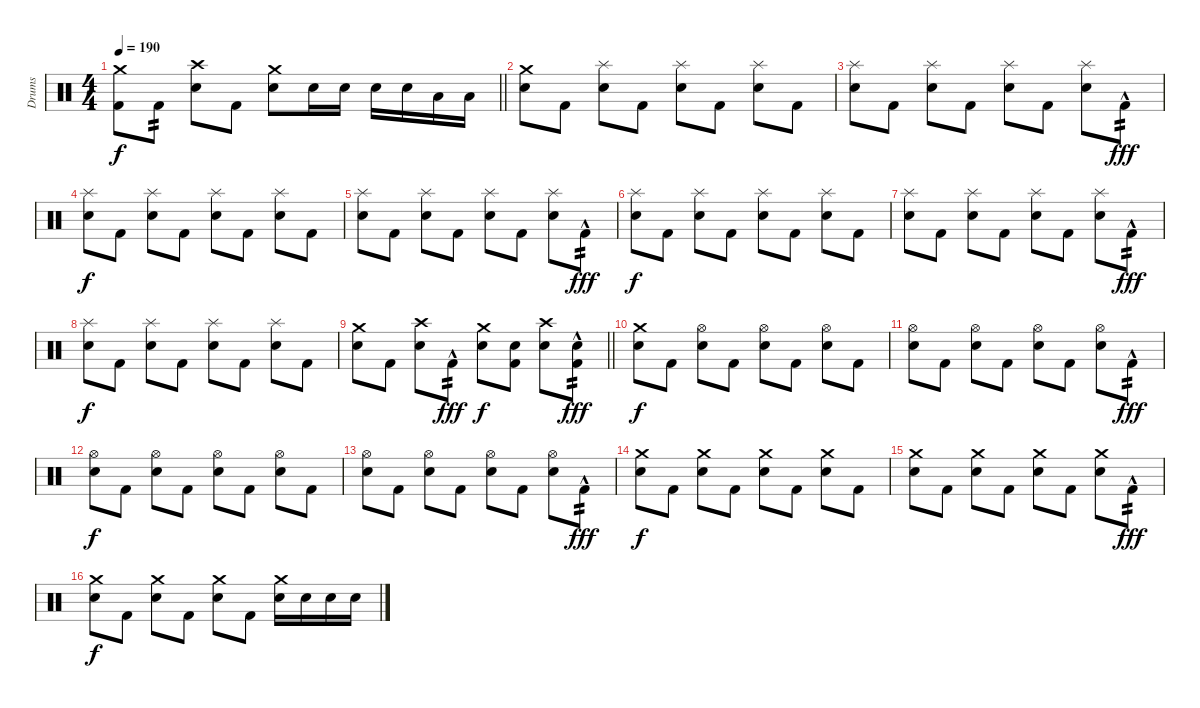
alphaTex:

\track ("Drums" "Drums") {instrument percussion}
\staff {score}
\articulation defaults
\ts (4 4)
\tempo 190
\clef neutral
\barLineRight lightlight
\ks c
("Kick (hit) 2" "Crash medium (hit)").8{dy f} "Kick (hit) 2".8{tp 2} ("Snare (hit) 2" "Crash high (hit)").8 "Kick (hit) 2".8 ("Snare (hit) 2" "Crash medium (hit)").8 "Snare (hit) 2".16 "Snare (hit) 2".16 "Snare (hit) 2".16 "Snare (hit) 2".16 "Low Tom (hit)".16 "Low Tom (hit)".16 |
\section ("" "")
("Snare (hit) 2" "Crash medium (hit)").8 "Kick (hit) 2".8 ("Snare (hit) 2" "Splash (hit)").8 "Kick (hit) 2".8 ("Snare (hit) 2" "Splash (hit)").8 "Kick (hit) 2".8 ("Snare (hit) 2" "Splash (hit)").8 "Kick (hit) 2".8 |
("Snare (hit) 2" "Splash (hit)").8 "Kick (hit) 2".8 ("Snare (hit) 2" "Splash (hit)").8 "Kick (hit) 2".8 ("Snare (hit) 2" "Splash (hit)").8 "Kick (hit) 2".8 ("Snare (hit) 2" "Splash (hit)").8 "Kick (hit) 2"{hac}.8{tp 2 dy fff} |
("Snare (hit) 2" "Splash (hit)").8{dy f} "Kick (hit) 2".8 ("Snare (hit) 2" "Splash (hit)").8 "Kick (hit) 2".8 ("Snare (hit) 2" "Splash (hit)").8 "Kick (hit) 2".8 ("Snare (hit) 2" "Splash (hit)").8 "Kick (hit) 2".8 |
("Snare (hit) 2" "Splash (hit)").8 "Kick (hit) 2".8 ("Snare (hit) 2" "Splash (hit)").8 "Kick (hit) 2".8 ("Snare (hit) 2" "Splash (hit)").8 "Kick (hit) 2".8 ("Snare (hit) 2" "Splash (hit)").8 "Kick (hit) 2"{hac}.8{tp 2 dy fff} |
("Snare (hit) 2" "Splash (hit)").8{dy f} "Kick (hit) 2".8 ("Snare (hit) 2" "Splash (hit)").8 "Kick (hit) 2".8 ("Snare (hit) 2" "Splash (hit)").8 "Kick (hit) 2".8 ("Snare (hit) 2" "Splash (hit)").8 "Kick (hit) 2".8 |
("Snare (hit) 2" "Splash (hit)").8 "Kick (hit) 2".8 ("Snare (hit) 2" "Splash (hit)").8 "Kick (hit) 2".8 ("Snare (hit) 2" "Splash (hit)").8 "Kick (hit) 2".8 ("Snare (hit) 2" "Splash (hit)").8 "Kick (hit) 2"{hac}.8{tp 2 dy fff} |
("Snare (hit) 2" "Splash (hit)").8{dy f} "Kick (hit) 2".8 ("Snare (hit) 2" "Splash (hit)").8 "Kick (hit) 2".8 ("Snare (hit) 2" "Splash (hit)").8 "Kick (hit) 2".8 ("Snare (hit) 2" "Splash (hit)").8 "Kick (hit) 2".8 |
\barLineRight lightlight
("Snare (hit) 2" "Crash medium (hit)").8 "Kick (hit) 2".8 ("Snare (hit) 2" "Crash high (hit)").8 "Kick (hit) 2"{hac}.8{tp 2 dy fff} ("Snare (hit) 2" "Crash medium (hit)").8{dy f} ("Kick (hit) 2" "Snare (hit) 2").8 ("Snare (hit) 2" "Crash high (hit)").8 ("Kick (hit) 2"{hac} "Snare (hit) 2").8{tp 2 dy fff} |
\section ("" "")
("Snare (hit) 2" "Crash medium (hit)").8{dy f} "Kick (hit) 2".8 ("Snare (hit) 2" "Hi-Hat (open)").8 "Kick (hit) 2".8 ("Snare (hit) 2" "Hi-Hat (open)").8 "Kick (hit) 2".8 ("Snare (hit) 2" "Hi-Hat (open)").8 "Kick (hit) 2".8 |
("Snare (hit) 2" "Hi-Hat (open)").8 "Kick (hit) 2".8 ("Snare (hit) 2" "Hi-Hat (open)").8 "Kick (hit) 2".8 ("Snare (hit) 2" "Hi-Hat (open)").8 "Kick (hit) 2".8 ("Snare (hit) 2" "Hi-Hat (open)").8 "Kick (hit) 2"{hac}.8{tp 2 dy fff} |
("Snare (hit) 2" "Hi-Hat (open)").8{dy f} "Kick (hit) 2".8 ("Snare (hit) 2" "Hi-Hat (open)").8 "Kick (hit) 2".8 ("Snare (hit) 2" "Hi-Hat (open)").8 "Kick (hit) 2".8 ("Snare (hit) 2" "Hi-Hat (open)").8 "Kick (hit) 2".8 |
("Snare (hit) 2" "Hi-Hat (open)").8 "Kick (hit) 2".8 ("Snare (hit) 2" "Hi-Hat (open)").8 "Kick (hit) 2".8 ("Snare (hit) 2" "Hi-Hat (open)").8 "Kick (hit) 2".8 ("Snare (hit) 2" "Hi-Hat (open)").8 "Kick (hit) 2"{hac}.8{tp 2 dy fff} |
("Snare (hit) 2" "Crash medium (hit)").8{dy f} "Kick (hit) 2".8 ("Snare (hit) 2" "Crash medium (hit)").8 "Kick (hit) 2".8 ("Snare (hit) 2" "Crash medium (hit)").8 "Kick (hit) 2".8 ("Snare (hit) 2" "Crash medium (hit)").8 "Kick (hit) 2".8 |
("Snare (hit) 2" "Crash medium (hit)").8 "Kick (hit) 2".8 ("Snare (hit) 2" "Crash medium (hit)").8 "Kick (hit) 2".8 ("Snare (hit) 2" "Crash medium (hit)").8 "Kick (hit) 2".8 ("Snare (hit) 2" "Crash medium (hit)").8 "Kick (hit) 2"{hac}.8{tp 2 dy fff} |
("Snare (hit) 2" "Crash medium (hit)").8{dy f} "Kick (hit) 2".8 ("Snare (hit) 2" "Crash medium (hit)").8 "Kick (hit) 2".8 ("Snare (hit) 2" "Crash medium (hit)").8 "Kick (hit) 2".8 ("Snare (hit) 2" "Crash medium (hit)").16 "Snare (hit) 2".16 "Snare (hit) 2".16 "Snare (hit) 2".16
